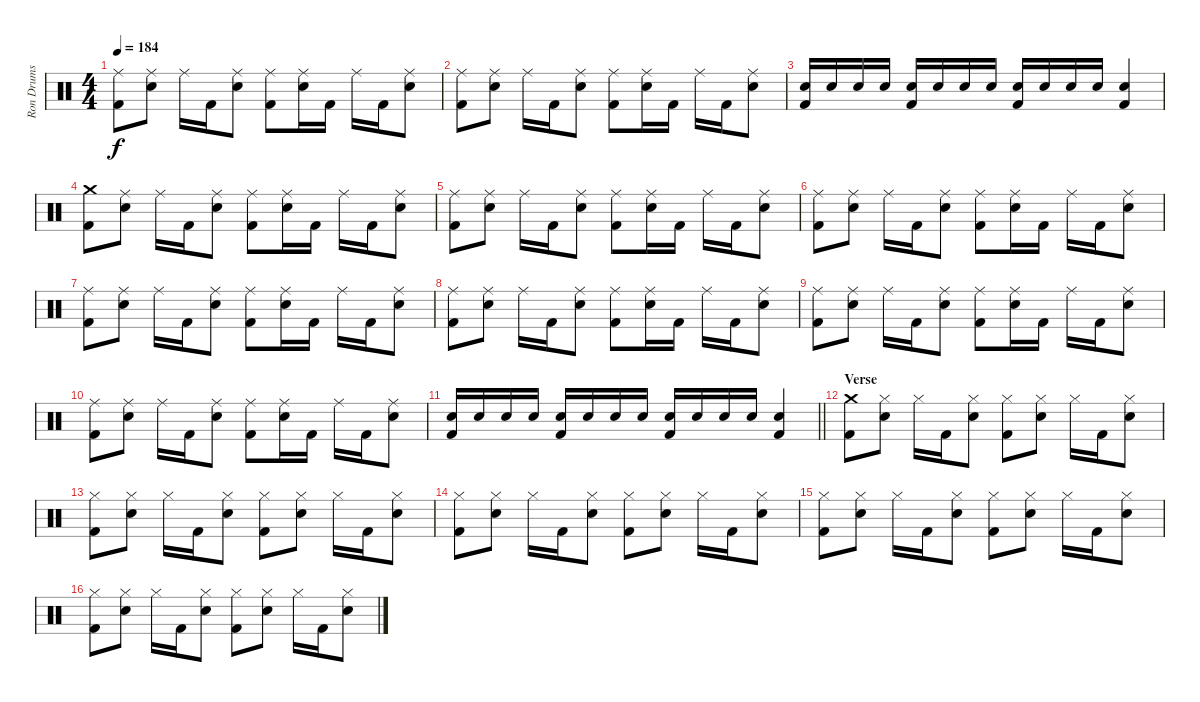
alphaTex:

\track ("Ron Drums and Percussion" "Ron Drums ") {instrument percussion}
\staff {score}
\articulation defaults
\ts (4 4)
\tempo 184
\clef neutral
\ks c
("Ride (middle)" "Kick (hit) 2").8{dy f} ("Ride (middle)" "Electric Snare (hit)").8 "Ride (middle)".16 "Kick (hit) 2".16 ("Ride (middle)" "Electric Snare (hit)").8 ("Ride (middle)" "Kick (hit) 2").8 ("Ride (middle)" "Electric Snare (hit)").16 "Kick (hit) 2".16 "Ride (middle)".16 "Kick (hit) 2".16 ("Ride (middle)" "Electric Snare (hit)").8 |
("Ride (middle)" "Kick (hit) 2").8 ("Ride (middle)" "Electric Snare (hit)").8 "Ride (middle)".16 "Kick (hit) 2".16 ("Ride (middle)" "Electric Snare (hit)").8 ("Ride (middle)" "Kick (hit) 2").8 ("Ride (middle)" "Electric Snare (hit)").16 "Kick (hit) 2".16 "Ride (middle)".16 "Kick (hit) 2".16 ("Ride (middle)" "Electric Snare (hit)").8 |
("Electric Snare (hit)" "Kick (hit) 2").16 "Electric Snare (hit)".16 "Electric Snare (hit)".16 "Electric Snare (hit)".16 ("Electric Snare (hit)" "Kick (hit) 2").16 "Electric Snare (hit)".16 "Electric Snare (hit)".16 "Electric Snare (hit)".16 ("Electric Snare (hit)" "Kick (hit) 2").16 "Electric Snare (hit)".16 "Electric Snare (hit)".16 "Electric Snare (hit)".16 ("Electric Snare (hit)" "Kick (hit) 2").4 |
("Crash medium (hit)" "Kick (hit) 2").8 ("Ride (middle)" "Electric Snare (hit)").8 "Ride (middle)".16 "Kick (hit) 2".16 ("Ride (middle)" "Electric Snare (hit)").8 ("Ride (middle)" "Kick (hit) 2").8 ("Ride (middle)" "Electric Snare (hit)").16 "Kick (hit) 2".16 "Ride (middle)".16 "Kick (hit) 2".16 ("Ride (middle)" "Electric Snare (hit)").8 |
("Ride (middle)" "Kick (hit) 2").8 ("Ride (middle)" "Electric Snare (hit)").8 "Ride (middle)".16 "Kick (hit) 2".16 ("Ride (middle)" "Electric Snare (hit)").8 ("Ride (middle)" "Kick (hit) 2").8 ("Ride (middle)" "Electric Snare (hit)").16 "Kick (hit) 2".16 "Ride (middle)".16 "Kick (hit) 2".16 ("Ride (middle)" "Electric Snare (hit)").8 |
("Ride (middle)" "Kick (hit) 2").8 ("Ride (middle)" "Electric Snare (hit)").8 "Ride (middle)".16 "Kick (hit) 2".16 ("Ride (middle)" "Electric Snare (hit)").8 ("Ride (middle)" "Kick (hit) 2").8 ("Ride (middle)" "Electric Snare (hit)").16 "Kick (hit) 2".16 "Ride (middle)".16 "Kick (hit) 2".16 ("Ride (middle)" "Electric Snare (hit)").8 |
("Ride (middle)" "Kick (hit) 2").8 ("Ride (middle)" "Electric Snare (hit)").8 "Ride (middle)".16 "Kick (hit) 2".16 ("Ride (middle)" "Electric Snare (hit)").8 ("Ride (middle)" "Kick (hit) 2").8 ("Ride (middle)" "Electric Snare (hit)").16 "Kick (hit) 2".16 "Ride (middle)".16 "Kick (hit) 2".16 ("Ride (middle)" "Electric Snare (hit)").8 |
("Ride (middle)" "Kick (hit) 2").8 ("Ride (middle)" "Electric Snare (hit)").8 "Ride (middle)".16 "Kick (hit) 2".16 ("Ride (middle)" "Electric Snare (hit)").8 ("Ride (middle)" "Kick (hit) 2").8 ("Ride (middle)" "Electric Snare (hit)").16 "Kick (hit) 2".16 "Ride (middle)".16 "Kick (hit) 2".16 ("Ride (middle)" "Electric Snare (hit)").8 |
("Ride (middle)" "Kick (hit) 2").8 ("Ride (middle)" "Electric Snare (hit)").8 "Ride (middle)".16 "Kick (hit) 2".16 ("Ride (middle)" "Electric Snare (hit)").8 ("Ride (middle)" "Kick (hit) 2").8 ("Ride (middle)" "Electric Snare (hit)").16 "Kick (hit) 2".16 "Ride (middle)".16 "Kick (hit) 2".16 ("Ride (middle)" "Electric Snare (hit)").8 |
("Ride (middle)" "Kick (hit) 2").8 ("Ride (middle)" "Electric Snare (hit)").8 "Ride (middle)".16 "Kick (hit) 2".16 ("Ride (middle)" "Electric Snare (hit)").8 ("Ride (middle)" "Kick (hit) 2").8 ("Ride (middle)" "Electric Snare (hit)").16 "Kick (hit) 2".16 "Ride (middle)".16 "Kick (hit) 2".16 ("Ride (middle)" "Electric Snare (hit)").8 |
\barLineRight lightlight
("Electric Snare (hit)" "Kick (hit) 2").16 "Electric Snare (hit)".16 "Electric Snare (hit)".16 "Electric Snare (hit)".16 ("Electric Snare (hit)" "Kick (hit) 2").16 "Electric Snare (hit)".16 "Electric Snare (hit)".16 "Electric Snare (hit)".16 ("Electric Snare (hit)" "Kick (hit) 2").16 "Electric Snare (hit)".16 "Electric Snare (hit)".16 "Electric Snare (hit)".16 ("Electric Snare (hit)" "Kick (hit) 2").4 |
\section ("" "Verse")
("Crash medium (hit)" "Kick (hit) 2").8 ("Hi-Hat (closed)" "Electric Snare (hit)").8 "Hi-Hat (closed)".16 "Kick (hit) 2".16 ("Hi-Hat (closed)" "Electric Snare (hit)").8 ("Hi-Hat (closed)" "Kick (hit) 2").8 ("Hi-Hat (closed)" "Electric Snare (hit)").8 "Hi-Hat (closed)".16 "Kick (hit) 2".16 ("Hi-Hat (closed)" "Electric Snare (hit)").8 |
("Hi-Hat (closed)" "Kick (hit) 2").8 ("Hi-Hat (closed)" "Electric Snare (hit)").8 "Hi-Hat (closed)".16 "Kick (hit) 2".16 ("Hi-Hat (closed)" "Electric Snare (hit)").8 ("Hi-Hat (closed)" "Kick (hit) 2").8 ("Hi-Hat (closed)" "Electric Snare (hit)").8 "Hi-Hat (closed)".16 "Kick (hit) 2".16 ("Hi-Hat (closed)" "Electric Snare (hit)").8 |
("Hi-Hat (closed)" "Kick (hit) 2").8 ("Hi-Hat (closed)" "Electric Snare (hit)").8 "Hi-Hat (closed)".16 "Kick (hit) 2".16 ("Hi-Hat (closed)" "Electric Snare (hit)").8 ("Hi-Hat (closed)" "Kick (hit) 2").8 ("Hi-Hat (closed)" "Electric Snare (hit)").8 "Hi-Hat (closed)".16 "Kick (hit) 2".16 ("Hi-Hat (closed)" "Electric Snare (hit)").8 |
("Hi-Hat (closed)" "Kick (hit) 2").8 ("Hi-Hat (closed)" "Electric Snare (hit)").8 "Hi-Hat (closed)".16 "Kick (hit) 2".16 ("Hi-Hat (closed)" "Electric Snare (hit)").8 ("Hi-Hat (closed)" "Kick (hit) 2").8 ("Hi-Hat (closed)" "Electric Snare (hit)").8 "Hi-Hat (closed)".16 "Kick (hit) 2".16 ("Hi-Hat (closed)" "Electric Snare (hit)").8 |
("Hi-Hat (closed)" "Kick (hit) 2").8 ("Hi-Hat (closed)" "Electric Snare (hit)").8 "Hi-Hat (closed)".16 "Kick (hit) 2".16 ("Hi-Hat (closed)" "Electric Snare (hit)").8 ("Hi-Hat (closed)" "Kick (hit) 2").8 ("Hi-Hat (closed)" "Electric Snare (hit)").8 "Hi-Hat (closed)".16 "Kick (hit) 2".16 ("Hi-Hat (closed)" "Electric Snare (hit)").8
